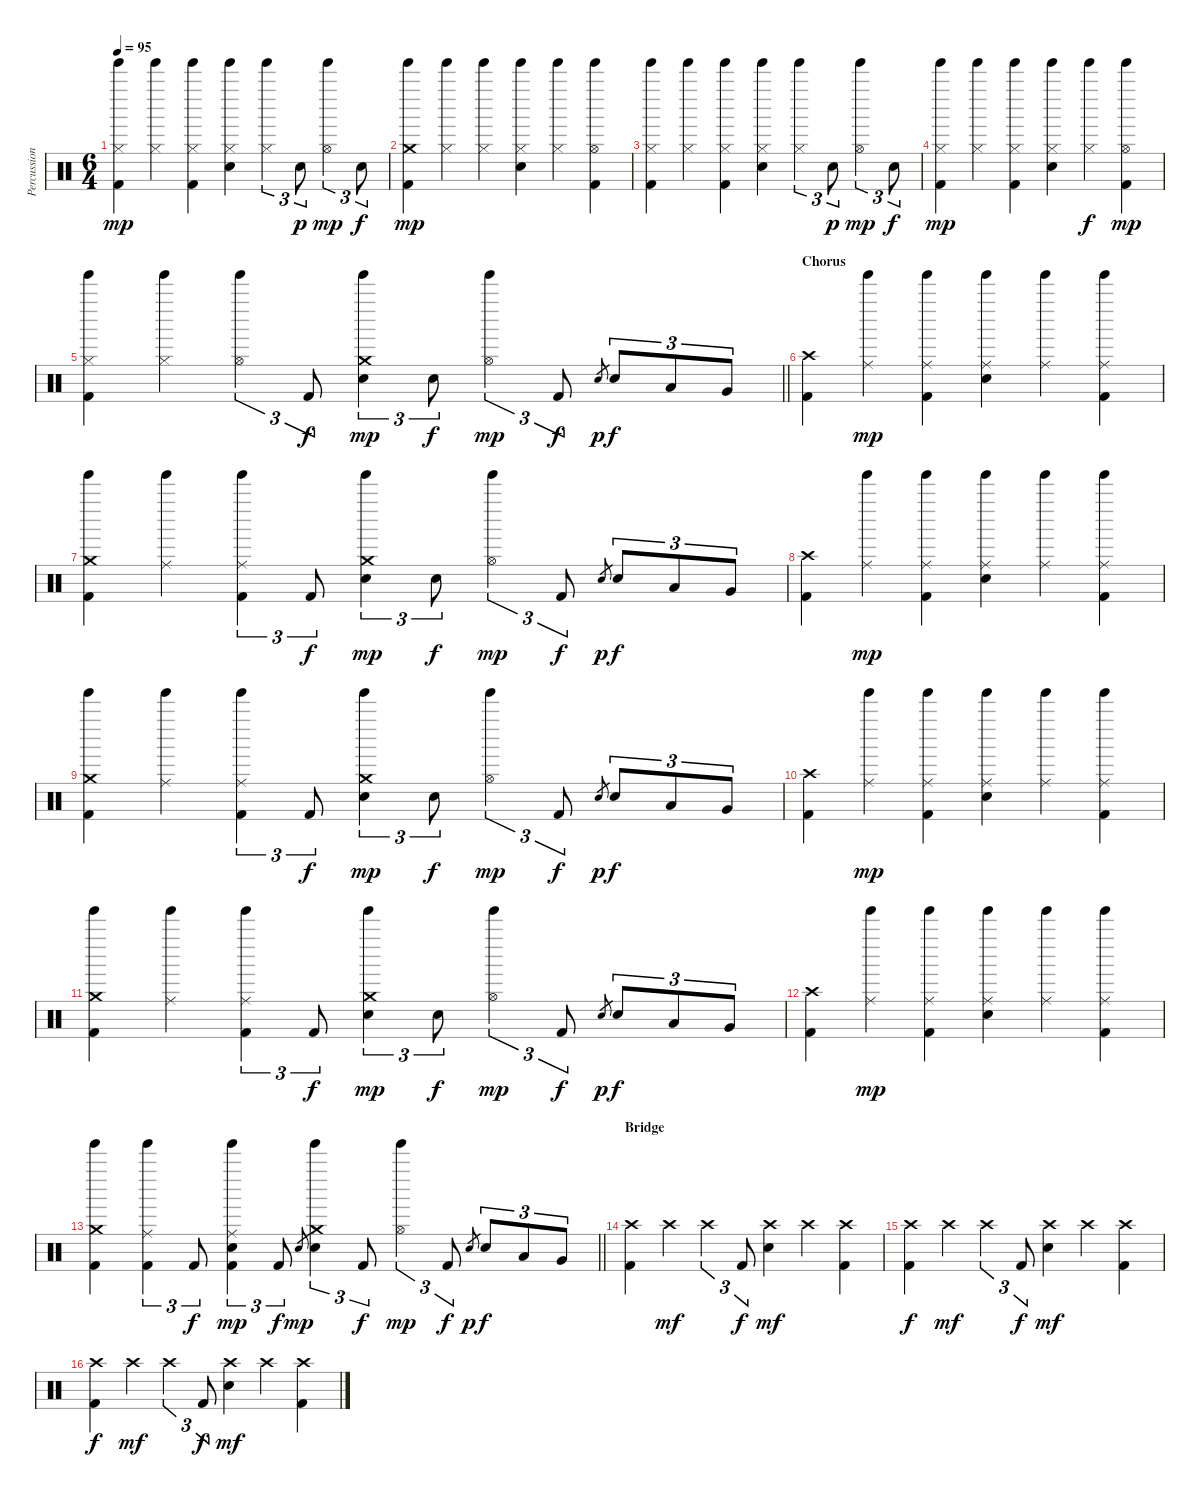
\track ("Percussion" "Percussion") {instrument percussion}
\staff {score}
\articulation defaults
\ts (6 4)
\tempo 95
\clef neutral
\ks c
("Kick (hit) 2" "Hi-Hat (closed)" "Tinkle Bell (hit)").4{dy mp} ("Hi-Hat (closed)" "Tinkle Bell (hit)").4 ("Hi-Hat (closed)" "Kick (hit) 2" "Tinkle Bell (hit)").4 ("Hi-Hat (closed)" "Snare (hit) 2" "Tinkle Bell (hit)").4 ("Hi-Hat (closed)" "Tinkle Bell (hit)").4{tu (3 2)} "Snare (hit) 2".8{tu (3 2) dy p} ("Hi-Hat (open)" "Tinkle Bell (hit)").4{tu (3 2) dy mp} "Snare (hit) 2".8{tu (3 2) dy f} |
("Kick (hit) 2" "Crash medium (hit)" "Tinkle Bell (hit)").4{dy mp} ("Hi-Hat (closed)" "Tinkle Bell (hit)").4 ("Hi-Hat (closed)" "Tinkle Bell (hit)").4 ("Hi-Hat (closed)" "Snare (hit) 2" "Tinkle Bell (hit)").4 ("Hi-Hat (closed)" "Tinkle Bell (hit)").4 ("Hi-Hat (open)" "Kick (hit) 2" "Tinkle Bell (hit)").4 |
("Kick (hit) 2" "Hi-Hat (closed)" "Tinkle Bell (hit)").4 ("Hi-Hat (closed)" "Tinkle Bell (hit)").4 ("Hi-Hat (closed)" "Kick (hit) 2" "Tinkle Bell (hit)").4 ("Hi-Hat (closed)" "Snare (hit) 2" "Tinkle Bell (hit)").4 ("Hi-Hat (closed)" "Tinkle Bell (hit)").4{tu (3 2)} "Snare (hit) 2".8{tu (3 2) dy p} ("Hi-Hat (open)" "Tinkle Bell (hit)").4{tu (3 2) dy mp} "Snare (hit) 2".8{tu (3 2) dy f} |
("Kick (hit) 2" "Hi-Hat (closed)" "Tinkle Bell (hit)").4{dy mp} ("Hi-Hat (closed)" "Tinkle Bell (hit)").4 ("Hi-Hat (closed)" "Kick (hit) 2" "Tinkle Bell (hit)").4 ("Hi-Hat (closed)" "Snare (hit) 2" "Tinkle Bell (hit)").4 ("Hi-Hat (closed)" "Tinkle Bell (hit)").4{dy f} ("Hi-Hat (open)" "Kick (hit) 2" "Tinkle Bell (hit)").4{dy mp} |
\barLineRight lightlight
("Kick (hit) 2" "Hi-Hat (closed)" "Tinkle Bell (hit)").4 ("Hi-Hat (closed)" "Tinkle Bell (hit)").4 ("Hi-Hat (open)" "Tinkle Bell (hit)").4{tu (3 2)} "Kick (hit) 2".8{tu (3 2) dy f} ("Snare (hit) 2" "Crash medium (hit)" "Tinkle Bell (hit)").4{tu (3 2) dy mp} "Snare (hit) 2".8{tu (3 2) dy f} ("Hi-Hat (open)" "Tinkle Bell (hit)").4{tu (3 2) dy mp} "Kick (hit) 2".8{tu (3 2) dy f} "Snare (hit) 2".8{gr dy p} "Snare (hit) 2".8{tu (3 2) dy f} "Low Tom (hit)".8{tu (3 2)} "Very Low Tom (hit)".8{tu (3 2)} |
\section ("" "Chorus")
("Crash high (hit)" "Kick (hit) 2").4 ("Ride (middle)" "Tinkle Bell (hit)").4{dy mp} ("Ride (middle)" "Tinkle Bell (hit)" "Kick (hit) 2").4 ("Ride (middle)" "Snare (hit) 2" "Tinkle Bell (hit)").4 ("Ride (middle)" "Tinkle Bell (hit)").4 ("Ride (middle)" "Tinkle Bell (hit)" "Kick (hit) 2").4 |
("Crash medium (hit)" "Kick (hit) 2" "Tinkle Bell (hit)").4 ("Ride (middle)" "Tinkle Bell (hit)").4 ("Ride (middle)" "Tinkle Bell (hit)" "Kick (hit) 2").4{tu (3 2)} "Kick (hit) 2".8{tu (3 2) dy f} ("Snare (hit) 2" "Crash medium (hit)" "Tinkle Bell (hit)").4{tu (3 2) dy mp} "Snare (hit) 2".8{tu (3 2) dy f} ("Hi-Hat (open)" "Tinkle Bell (hit)").4{tu (3 2) dy mp} "Kick (hit) 2".8{tu (3 2) dy f} "Snare (hit) 2".8{gr dy p} "Snare (hit) 2".8{tu (3 2) dy f} "Low Tom (hit)".8{tu (3 2)} "Very Low Tom (hit)".8{tu (3 2)} |
("Crash high (hit)" "Kick (hit) 2").4 ("Ride (middle)" "Tinkle Bell (hit)").4{dy mp} ("Ride (middle)" "Tinkle Bell (hit)" "Kick (hit) 2").4 ("Ride (middle)" "Snare (hit) 2" "Tinkle Bell (hit)").4 ("Ride (middle)" "Tinkle Bell (hit)").4 ("Ride (middle)" "Tinkle Bell (hit)" "Kick (hit) 2").4 |
("Crash medium (hit)" "Kick (hit) 2" "Tinkle Bell (hit)").4 ("Ride (middle)" "Tinkle Bell (hit)").4 ("Ride (middle)" "Tinkle Bell (hit)" "Kick (hit) 2").4{tu (3 2)} "Kick (hit) 2".8{tu (3 2) dy f} ("Snare (hit) 2" "Crash medium (hit)" "Tinkle Bell (hit)").4{tu (3 2) dy mp} "Snare (hit) 2".8{tu (3 2) dy f} ("Hi-Hat (open)" "Tinkle Bell (hit)").4{tu (3 2) dy mp} "Kick (hit) 2".8{tu (3 2) dy f} "Snare (hit) 2".8{gr dy p} "Snare (hit) 2".8{tu (3 2) dy f} "Low Tom (hit)".8{tu (3 2)} "Very Low Tom (hit)".8{tu (3 2)} |
("Crash high (hit)" "Kick (hit) 2").4 ("Ride (middle)" "Tinkle Bell (hit)").4{dy mp} ("Ride (middle)" "Tinkle Bell (hit)" "Kick (hit) 2").4 ("Ride (middle)" "Snare (hit) 2" "Tinkle Bell (hit)").4 ("Ride (middle)" "Tinkle Bell (hit)").4 ("Ride (middle)" "Tinkle Bell (hit)" "Kick (hit) 2").4 |
("Crash medium (hit)" "Kick (hit) 2" "Tinkle Bell (hit)").4 ("Ride (middle)" "Tinkle Bell (hit)").4 ("Ride (middle)" "Tinkle Bell (hit)" "Kick (hit) 2").4{tu (3 2)} "Kick (hit) 2".8{tu (3 2) dy f} ("Snare (hit) 2" "Crash medium (hit)" "Tinkle Bell (hit)").4{tu (3 2) dy mp} "Snare (hit) 2".8{tu (3 2) dy f} ("Hi-Hat (open)" "Tinkle Bell (hit)").4{tu (3 2) dy mp} "Kick (hit) 2".8{tu (3 2) dy f} "Snare (hit) 2".8{gr dy p} "Snare (hit) 2".8{tu (3 2) dy f} "Low Tom (hit)".8{tu (3 2)} "Very Low Tom (hit)".8{tu (3 2)} |
("Crash high (hit)" "Kick (hit) 2").4 ("Ride (middle)" "Tinkle Bell (hit)").4{dy mp} ("Ride (middle)" "Tinkle Bell (hit)" "Kick (hit) 2").4 ("Ride (middle)" "Snare (hit) 2" "Tinkle Bell (hit)").4 ("Ride (middle)" "Tinkle Bell (hit)").4 ("Ride (middle)" "Tinkle Bell (hit)" "Kick (hit) 2").4 |
\barLineRight lightlight
("Crash medium (hit)" "Kick (hit) 2" "Tinkle Bell (hit)").4 ("Ride (middle)" "Tinkle Bell (hit)" "Kick (hit) 2").4{tu (3 2)} "Kick (hit) 2".8{tu (3 2) dy f} ("Ride (middle)" "Tinkle Bell (hit)" "Kick (hit) 2" "Snare (hit) 2").4{tu (3 2) dy mp} "Kick (hit) 2".8{tu (3 2) dy f} "Snare (hit) 2".8{gr dy mp} ("Snare (hit) 2" "Crash medium (hit)" "Tinkle Bell (hit)").4{tu (3 2)} "Kick (hit) 2".8{tu (3 2) dy f} ("Hi-Hat (open)" "Tinkle Bell (hit)").4{tu (3 2) dy mp} "Kick (hit) 2".8{tu (3 2) dy f} "Snare (hit) 2".8{gr dy p} "Snare (hit) 2".8{tu (3 2) dy f} "Low Tom (hit)".8{tu (3 2)} "Very Low Tom (hit)".8{tu (3 2)} |
\section ("" "Bridge")
("Kick (hit) 2" "Crash high (hit)").4 "Crash high (hit)".4{dy mf} "Crash high (hit)".4{tu (3 2)} "Kick (hit) 2".8{tu (3 2) dy f} ("Snare (hit) 2" "Crash high (hit)").4{dy mf} "Crash high (hit)".4 ("Crash high (hit)" "Kick (hit) 2").4 |
("Kick (hit) 2" "Crash high (hit)").4{dy f} "Crash high (hit)".4{dy mf} "Crash high (hit)".4{tu (3 2)} "Kick (hit) 2".8{tu (3 2) dy f} ("Snare (hit) 2" "Crash high (hit)").4{dy mf} "Crash high (hit)".4 ("Crash high (hit)" "Kick (hit) 2").4 |
("Kick (hit) 2" "Crash high (hit)").4{dy f} "Crash high (hit)".4{dy mf} "Crash high (hit)".4{tu (3 2)} "Kick (hit) 2".8{tu (3 2) dy f} ("Snare (hit) 2" "Crash high (hit)").4{dy mf} "Crash high (hit)".4 ("Crash high (hit)" "Kick (hit) 2").4
